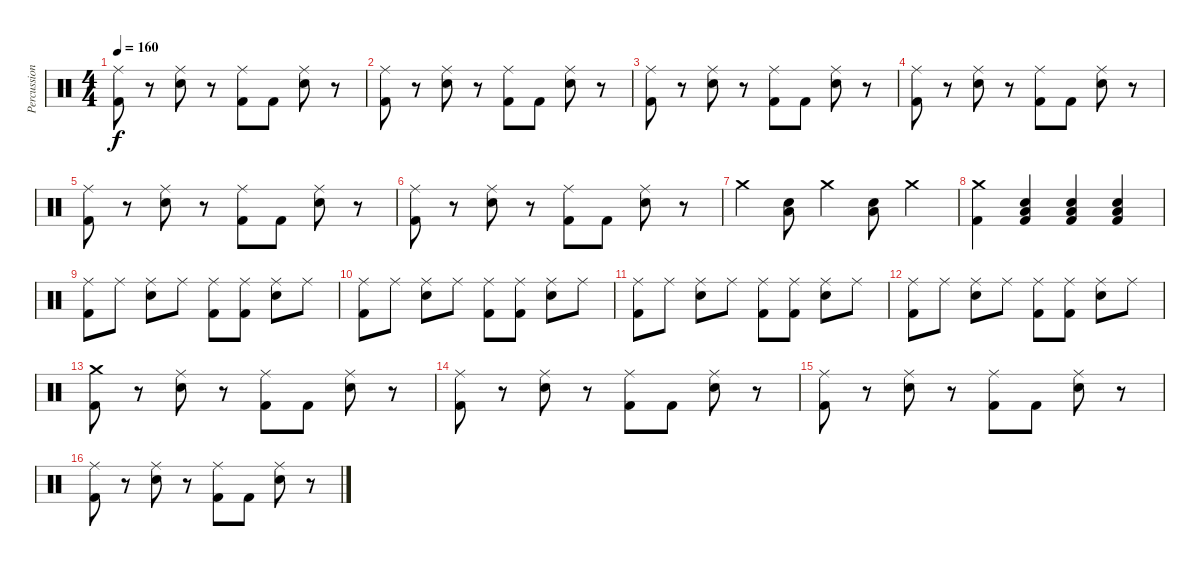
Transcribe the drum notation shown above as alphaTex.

\track ("Percussion" "Percussion") {instrument percussion}
\staff {score}
\articulation defaults
\ts (4 4)
\tempo 160
\clef neutral
\ks c
("Ride (middle)" "Kick (hit) 2").8{dy f} r.8 ("Ride (middle)" "Electric Snare (hit)").8 r.8 ("Ride (middle)" "Kick (hit) 2").8 "Kick (hit) 2".8 ("Ride (middle)" "Electric Snare (hit)").8 r.8 |
("Ride (middle)" "Kick (hit) 2").8 r.8 ("Ride (middle)" "Electric Snare (hit)").8 r.8 ("Ride (middle)" "Kick (hit) 2").8 "Kick (hit) 2".8 ("Ride (middle)" "Electric Snare (hit)").8 r.8 |
("Ride (middle)" "Kick (hit) 2").8 r.8 ("Ride (middle)" "Electric Snare (hit)").8 r.8 ("Ride (middle)" "Kick (hit) 2").8 "Kick (hit) 2".8 ("Ride (middle)" "Electric Snare (hit)").8 r.8 |
("Ride (middle)" "Kick (hit) 2").8 r.8 ("Ride (middle)" "Electric Snare (hit)").8 r.8 ("Ride (middle)" "Kick (hit) 2").8 "Kick (hit) 2".8 ("Ride (middle)" "Electric Snare (hit)").8 r.8 |
("Ride (middle)" "Kick (hit) 2").8 r.8 ("Ride (middle)" "Electric Snare (hit)").8 r.8 ("Ride (middle)" "Kick (hit) 2").8 "Kick (hit) 2".8 ("Ride (middle)" "Electric Snare (hit)").8 r.8 |
("Ride (middle)" "Kick (hit) 2").8 r.8 ("Ride (middle)" "Electric Snare (hit)").8 r.8 ("Ride (middle)" "Kick (hit) 2").8 "Kick (hit) 2".8 ("Ride (middle)" "Electric Snare (hit)").8 r.8 |
"Crash medium (hit)".4 ("Low Floor Tom (hit)" "Electric Snare (hit)").8 "Crash medium (hit)".4 ("Low Floor Tom (hit)" "Electric Snare (hit)").8 "Crash medium (hit)".4 |
("Crash medium (hit)" "Kick (hit) 2").4 ("Low Floor Tom (hit)" "Electric Snare (hit)" "Kick (hit) 2").4 ("Low Floor Tom (hit)" "Electric Snare (hit)" "Kick (hit) 2").4 ("Low Floor Tom (hit)" "Electric Snare (hit)" "Kick (hit) 2").4 |
("Ride (middle)" "Kick (hit) 2").8 "Ride (middle)".8 ("Ride (middle)" "Electric Snare (hit)").8 "Ride (middle)".8 ("Ride (middle)" "Kick (hit) 2").8 ("Ride (middle)" "Kick (hit) 2").8 ("Ride (middle)" "Electric Snare (hit)").8 "Ride (middle)".8 |
("Ride (middle)" "Kick (hit) 2").8 "Ride (middle)".8 ("Ride (middle)" "Electric Snare (hit)").8 "Ride (middle)".8 ("Ride (middle)" "Kick (hit) 2").8 ("Ride (middle)" "Kick (hit) 2").8 ("Ride (middle)" "Electric Snare (hit)").8 "Ride (middle)".8 |
("Ride (middle)" "Kick (hit) 2").8 "Ride (middle)".8 ("Ride (middle)" "Electric Snare (hit)").8 "Ride (middle)".8 ("Ride (middle)" "Kick (hit) 2").8 ("Ride (middle)" "Kick (hit) 2").8 ("Ride (middle)" "Electric Snare (hit)").8 "Ride (middle)".8 |
("Ride (middle)" "Kick (hit) 2").8 "Ride (middle)".8 ("Ride (middle)" "Electric Snare (hit)").8 "Ride (middle)".8 ("Ride (middle)" "Kick (hit) 2").8 ("Ride (middle)" "Kick (hit) 2").8 ("Ride (middle)" "Electric Snare (hit)").8 "Ride (middle)".8 |
("Crash medium (hit)" "Kick (hit) 2").8 r.8 ("Ride (middle)" "Electric Snare (hit)").8 r.8 ("Ride (middle)" "Kick (hit) 2").8 "Kick (hit) 2".8 ("Ride (middle)" "Electric Snare (hit)").8 r.8 |
("Ride (middle)" "Kick (hit) 2").8 r.8 ("Ride (middle)" "Electric Snare (hit)").8 r.8 ("Ride (middle)" "Kick (hit) 2").8 "Kick (hit) 2".8 ("Ride (middle)" "Electric Snare (hit)").8 r.8 |
("Ride (middle)" "Kick (hit) 2").8 r.8 ("Ride (middle)" "Electric Snare (hit)").8 r.8 ("Ride (middle)" "Kick (hit) 2").8 "Kick (hit) 2".8 ("Ride (middle)" "Electric Snare (hit)").8 r.8 |
("Ride (middle)" "Kick (hit) 2").8 r.8 ("Ride (middle)" "Electric Snare (hit)").8 r.8 ("Ride (middle)" "Kick (hit) 2").8 "Kick (hit) 2".8 ("Ride (middle)" "Electric Snare (hit)").8 r.8
